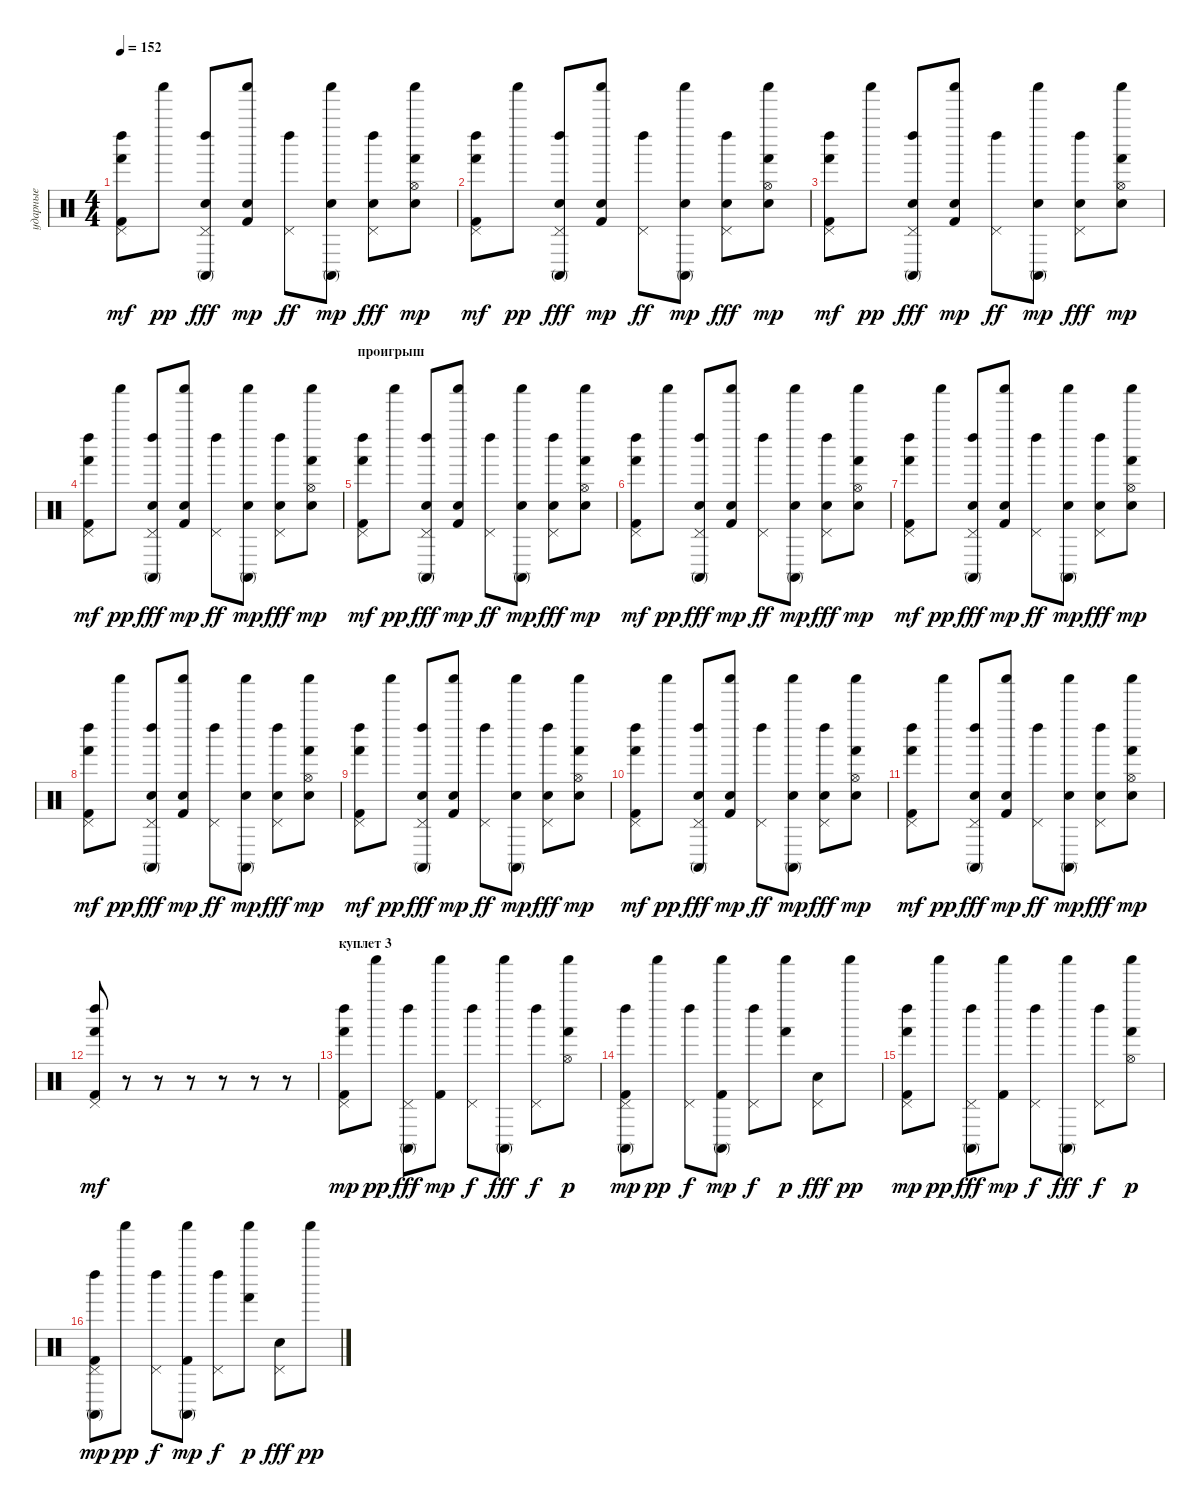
\track ("ударные" "ударные") {instrument percussion}
\staff {score}
\articulation defaults
\ts (4 4)
\tempo 152
\clef neutral
\ks c
("Pedal Hi-Hat (hit)" "Left Maraca (hit)" "Hand (hit)" "Kick (hit) 2").8{dy mf} "Shaker (hit)".8{dy pp} ("Pedal Hi-Hat (hit)" "Left Maraca (hit)" "Conga high (mute)" "Snare (hit) 2").8{dy fff} ("Shaker (hit)" "Kick (hit) 2" "Electric Snare (hit)").8{dy mp} ("Pedal Hi-Hat (hit)" "Left Maraca (hit)").8{dy ff} ("Shaker (hit)" "Conga high (mute)" "Electric Snare (hit)").8{dy mp} ("Pedal Hi-Hat (hit)" "Left Maraca (hit)" "Snare (hit) 2").8{dy fff} ("Shaker (hit)" "Hi-Hat (open)" "Hand (hit)" "Electric Snare (hit)").8{dy mp} |
("Pedal Hi-Hat (hit)" "Left Maraca (hit)" "Hand (hit)" "Kick (hit) 2").8{dy mf} "Shaker (hit)".8{dy pp} ("Pedal Hi-Hat (hit)" "Left Maraca (hit)" "Conga high (mute)" "Snare (hit) 2").8{dy fff} ("Shaker (hit)" "Kick (hit) 2" "Electric Snare (hit)").8{dy mp} ("Pedal Hi-Hat (hit)" "Left Maraca (hit)").8{dy ff} ("Shaker (hit)" "Conga high (mute)" "Electric Snare (hit)").8{dy mp} ("Pedal Hi-Hat (hit)" "Left Maraca (hit)" "Snare (hit) 2").8{dy fff} ("Shaker (hit)" "Hi-Hat (open)" "Hand (hit)" "Electric Snare (hit)").8{dy mp} |
("Pedal Hi-Hat (hit)" "Left Maraca (hit)" "Hand (hit)" "Kick (hit) 2").8{dy mf} "Shaker (hit)".8{dy pp} ("Pedal Hi-Hat (hit)" "Left Maraca (hit)" "Conga high (mute)" "Snare (hit) 2").8{dy fff} ("Shaker (hit)" "Kick (hit) 2" "Electric Snare (hit)").8{dy mp} ("Pedal Hi-Hat (hit)" "Left Maraca (hit)").8{dy ff} ("Shaker (hit)" "Conga high (mute)" "Electric Snare (hit)").8{dy mp} ("Pedal Hi-Hat (hit)" "Left Maraca (hit)" "Snare (hit) 2").8{dy fff} ("Shaker (hit)" "Hi-Hat (open)" "Hand (hit)" "Electric Snare (hit)").8{dy mp} |
("Pedal Hi-Hat (hit)" "Left Maraca (hit)" "Hand (hit)" "Kick (hit) 2").8{dy mf} "Shaker (hit)".8{dy pp} ("Pedal Hi-Hat (hit)" "Left Maraca (hit)" "Conga high (mute)" "Snare (hit) 2").8{dy fff} ("Shaker (hit)" "Kick (hit) 2" "Electric Snare (hit)").8{dy mp} ("Pedal Hi-Hat (hit)" "Left Maraca (hit)").8{dy ff} ("Shaker (hit)" "Conga high (mute)" "Electric Snare (hit)").8{dy mp} ("Pedal Hi-Hat (hit)" "Left Maraca (hit)" "Snare (hit) 2").8{dy fff} ("Shaker (hit)" "Hi-Hat (open)" "Hand (hit)" "Electric Snare (hit)").8{dy mp} |
\section ("" "проигрыш")
("Pedal Hi-Hat (hit)" "Left Maraca (hit)" "Hand (hit)" "Kick (hit) 2").8{dy mf} "Shaker (hit)".8{dy pp} ("Pedal Hi-Hat (hit)" "Left Maraca (hit)" "Conga high (mute)" "Snare (hit) 2").8{dy fff} ("Shaker (hit)" "Kick (hit) 2" "Electric Snare (hit)").8{dy mp} ("Pedal Hi-Hat (hit)" "Left Maraca (hit)").8{dy ff} ("Shaker (hit)" "Conga high (mute)" "Electric Snare (hit)").8{dy mp} ("Pedal Hi-Hat (hit)" "Left Maraca (hit)" "Snare (hit) 2").8{dy fff} ("Shaker (hit)" "Hi-Hat (open)" "Hand (hit)" "Electric Snare (hit)").8{dy mp} |
("Pedal Hi-Hat (hit)" "Left Maraca (hit)" "Hand (hit)" "Kick (hit) 2").8{dy mf} "Shaker (hit)".8{dy pp} ("Pedal Hi-Hat (hit)" "Left Maraca (hit)" "Conga high (mute)" "Snare (hit) 2").8{dy fff} ("Shaker (hit)" "Kick (hit) 2" "Electric Snare (hit)").8{dy mp} ("Pedal Hi-Hat (hit)" "Left Maraca (hit)").8{dy ff} ("Shaker (hit)" "Conga high (mute)" "Electric Snare (hit)").8{dy mp} ("Pedal Hi-Hat (hit)" "Left Maraca (hit)" "Snare (hit) 2").8{dy fff} ("Shaker (hit)" "Hi-Hat (open)" "Hand (hit)" "Electric Snare (hit)").8{dy mp} |
("Pedal Hi-Hat (hit)" "Left Maraca (hit)" "Hand (hit)" "Kick (hit) 2").8{dy mf} "Shaker (hit)".8{dy pp} ("Pedal Hi-Hat (hit)" "Left Maraca (hit)" "Conga high (mute)" "Snare (hit) 2").8{dy fff} ("Shaker (hit)" "Kick (hit) 2" "Electric Snare (hit)").8{dy mp} ("Pedal Hi-Hat (hit)" "Left Maraca (hit)").8{dy ff} ("Shaker (hit)" "Conga high (mute)" "Electric Snare (hit)").8{dy mp} ("Pedal Hi-Hat (hit)" "Left Maraca (hit)" "Snare (hit) 2").8{dy fff} ("Shaker (hit)" "Hi-Hat (open)" "Hand (hit)" "Electric Snare (hit)").8{dy mp} |
("Pedal Hi-Hat (hit)" "Left Maraca (hit)" "Hand (hit)" "Kick (hit) 2").8{dy mf} "Shaker (hit)".8{dy pp} ("Pedal Hi-Hat (hit)" "Left Maraca (hit)" "Conga high (mute)" "Snare (hit) 2").8{dy fff} ("Shaker (hit)" "Kick (hit) 2" "Electric Snare (hit)").8{dy mp} ("Pedal Hi-Hat (hit)" "Left Maraca (hit)").8{dy ff} ("Shaker (hit)" "Conga high (mute)" "Electric Snare (hit)").8{dy mp} ("Pedal Hi-Hat (hit)" "Left Maraca (hit)" "Snare (hit) 2").8{dy fff} ("Shaker (hit)" "Hi-Hat (open)" "Hand (hit)" "Electric Snare (hit)").8{dy mp} |
("Pedal Hi-Hat (hit)" "Left Maraca (hit)" "Hand (hit)" "Kick (hit) 2").8{dy mf} "Shaker (hit)".8{dy pp} ("Pedal Hi-Hat (hit)" "Left Maraca (hit)" "Conga high (mute)" "Snare (hit) 2").8{dy fff} ("Shaker (hit)" "Kick (hit) 2" "Electric Snare (hit)").8{dy mp} ("Pedal Hi-Hat (hit)" "Left Maraca (hit)").8{dy ff} ("Shaker (hit)" "Conga high (mute)" "Electric Snare (hit)").8{dy mp} ("Pedal Hi-Hat (hit)" "Left Maraca (hit)" "Snare (hit) 2").8{dy fff} ("Shaker (hit)" "Hi-Hat (open)" "Hand (hit)" "Electric Snare (hit)").8{dy mp} |
("Pedal Hi-Hat (hit)" "Left Maraca (hit)" "Hand (hit)" "Kick (hit) 2").8{dy mf} "Shaker (hit)".8{dy pp} ("Pedal Hi-Hat (hit)" "Left Maraca (hit)" "Conga high (mute)" "Snare (hit) 2").8{dy fff} ("Shaker (hit)" "Kick (hit) 2" "Electric Snare (hit)").8{dy mp} ("Pedal Hi-Hat (hit)" "Left Maraca (hit)").8{dy ff} ("Shaker (hit)" "Conga high (mute)" "Electric Snare (hit)").8{dy mp} ("Pedal Hi-Hat (hit)" "Left Maraca (hit)" "Snare (hit) 2").8{dy fff} ("Shaker (hit)" "Hi-Hat (open)" "Hand (hit)" "Electric Snare (hit)").8{dy mp} |
("Pedal Hi-Hat (hit)" "Left Maraca (hit)" "Hand (hit)" "Kick (hit) 2").8{dy mf} "Shaker (hit)".8{dy pp} ("Pedal Hi-Hat (hit)" "Left Maraca (hit)" "Conga high (mute)" "Snare (hit) 2").8{dy fff} ("Shaker (hit)" "Kick (hit) 2" "Electric Snare (hit)").8{dy mp} ("Pedal Hi-Hat (hit)" "Left Maraca (hit)").8{dy ff} ("Shaker (hit)" "Conga high (mute)" "Electric Snare (hit)").8{dy mp} ("Pedal Hi-Hat (hit)" "Left Maraca (hit)" "Snare (hit) 2").8{dy fff} ("Shaker (hit)" "Hi-Hat (open)" "Hand (hit)" "Electric Snare (hit)").8{dy mp} |
("Pedal Hi-Hat (hit)" "Left Maraca (hit)" "Hand (hit)" "Kick (hit) 2").8{dy mf} r.8 r.8 r.8 r.8 r.8 r.8 |
\section ("" "куплет 3")
("Pedal Hi-Hat (hit)" "Left Maraca (hit)" "Hand (hit)" "Kick (hit) 2").8{dy mp} "Shaker (hit)".8{dy pp} ("Pedal Hi-Hat (hit)" "Left Maraca (hit)" "Conga high (mute)").8{dy fff} ("Shaker (hit)" "Kick (hit) 2").8{dy mp} ("Pedal Hi-Hat (hit)" "Left Maraca (hit)").8{dy f} ("Shaker (hit)" "Conga high (mute)").8{dy fff} ("Pedal Hi-Hat (hit)" "Left Maraca (hit)").8{dy f} ("Shaker (hit)" "Hi-Hat (open)" "Hand (hit)").8{dy p} |
("Pedal Hi-Hat (hit)" "Left Maraca (hit)" "Conga high (mute)" "Kick (hit) 2").8{dy mp} "Shaker (hit)".8{dy pp} ("Pedal Hi-Hat (hit)" "Left Maraca (hit)").8{dy f} ("Shaker (hit)" "Conga high (mute)" "Kick (hit) 2").8{dy mp} ("Pedal Hi-Hat (hit)" "Left Maraca (hit)").8{dy f} ("Shaker (hit)" "Hand (hit)").8{dy p} ("Pedal Hi-Hat (hit)" "Snare (hit) 2").8{dy fff} "Shaker (hit)".8{dy pp} |
("Pedal Hi-Hat (hit)" "Left Maraca (hit)" "Hand (hit)" "Kick (hit) 2").8{dy mp} "Shaker (hit)".8{dy pp} ("Pedal Hi-Hat (hit)" "Left Maraca (hit)" "Conga high (mute)").8{dy fff} ("Shaker (hit)" "Kick (hit) 2").8{dy mp} ("Pedal Hi-Hat (hit)" "Left Maraca (hit)").8{dy f} ("Shaker (hit)" "Conga high (mute)").8{dy fff} ("Pedal Hi-Hat (hit)" "Left Maraca (hit)").8{dy f} ("Shaker (hit)" "Hi-Hat (open)" "Hand (hit)").8{dy p} |
("Pedal Hi-Hat (hit)" "Left Maraca (hit)" "Conga high (mute)" "Kick (hit) 2").8{dy mp} "Shaker (hit)".8{dy pp} ("Pedal Hi-Hat (hit)" "Left Maraca (hit)").8{dy f} ("Shaker (hit)" "Conga high (mute)" "Kick (hit) 2").8{dy mp} ("Pedal Hi-Hat (hit)" "Left Maraca (hit)").8{dy f} ("Shaker (hit)" "Hand (hit)").8{dy p} ("Pedal Hi-Hat (hit)" "Snare (hit) 2").8{dy fff} "Shaker (hit)".8{dy pp}
